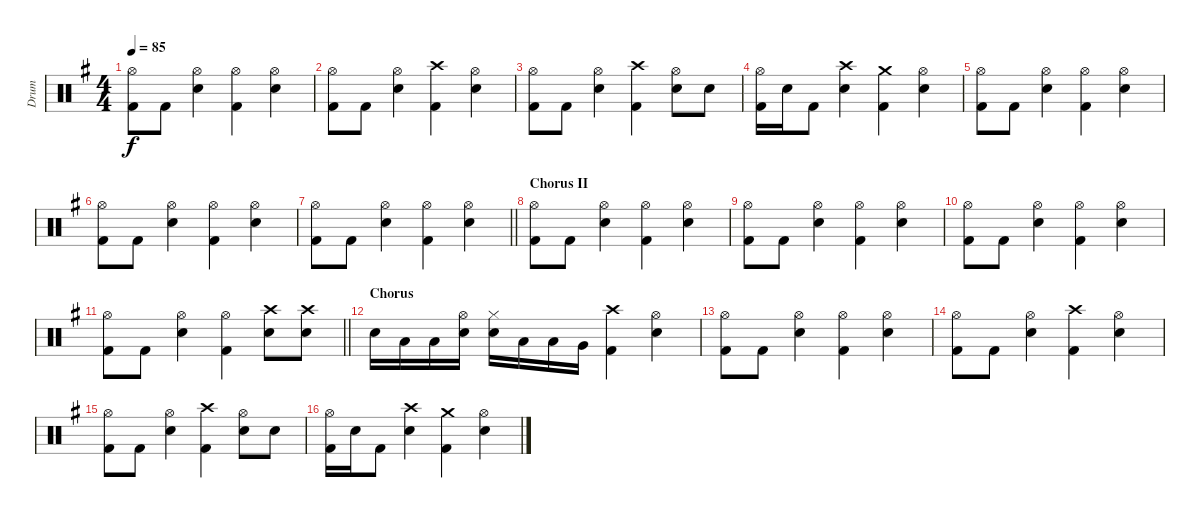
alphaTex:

\track ("Drum" "Drum") {instrument percussion}
\staff {score}
\articulation defaults
\ts (4 4)
\tempo 85
\clef neutral
\ks g
("Kick (hit) 2" "Hi-Hat (open)").8{dy f} "Kick (hit) 2".8 ("Electric Snare (hit)" "Hi-Hat (open)").4 ("Kick (hit) 2" "Hi-Hat (open)").4 ("Electric Snare (hit)" "Hi-Hat (open)").4 |
("Kick (hit) 2" "Hi-Hat (open)").8 "Kick (hit) 2".8 ("Electric Snare (hit)" "Hi-Hat (open)").4 ("Kick (hit) 2" "Crash high (hit)").4 ("Electric Snare (hit)" "Hi-Hat (open)").4 |
("Kick (hit) 2" "Hi-Hat (open)").8 "Kick (hit) 2".8 ("Electric Snare (hit)" "Hi-Hat (open)").4 ("Kick (hit) 2" "Crash high (hit)").4 ("Electric Snare (hit)" "Hi-Hat (open)").8 "Electric Snare (hit)".8 |
("Kick (hit) 2" "Hi-Hat (open)").16 "Electric Snare (hit)".16 "Kick (hit) 2".8 ("Electric Snare (hit)" "Crash high (hit)").4 ("Kick (hit) 2" "Crash medium (hit)").4 ("Electric Snare (hit)" "Hi-Hat (open)").4 |
("Kick (hit) 2" "Hi-Hat (open)").8 "Kick (hit) 2".8 ("Electric Snare (hit)" "Hi-Hat (open)").4 ("Kick (hit) 2" "Hi-Hat (open)").4 ("Electric Snare (hit)" "Hi-Hat (open)").4 |
("Kick (hit) 2" "Hi-Hat (open)").8 "Kick (hit) 2".8 ("Electric Snare (hit)" "Hi-Hat (open)").4 ("Kick (hit) 2" "Hi-Hat (open)").4 ("Electric Snare (hit)" "Hi-Hat (open)").4 |
\barLineRight lightlight
("Kick (hit) 2" "Hi-Hat (open)").8 "Kick (hit) 2".8 ("Electric Snare (hit)" "Hi-Hat (open)").4 ("Kick (hit) 2" "Hi-Hat (open)").4 ("Electric Snare (hit)" "Hi-Hat (open)").4 |
\section ("" "Chorus II")
("Kick (hit) 2" "Hi-Hat (open)").8 "Kick (hit) 2".8 ("Electric Snare (hit)" "Hi-Hat (open)").4 ("Kick (hit) 2" "Hi-Hat (open)").4 ("Electric Snare (hit)" "Hi-Hat (open)").4 |
("Kick (hit) 2" "Hi-Hat (open)").8 "Kick (hit) 2".8 ("Electric Snare (hit)" "Hi-Hat (open)").4 ("Kick (hit) 2" "Hi-Hat (open)").4 ("Electric Snare (hit)" "Hi-Hat (open)").4 |
("Kick (hit) 2" "Hi-Hat (open)").8 "Kick (hit) 2".8 ("Electric Snare (hit)" "Hi-Hat (open)").4 ("Kick (hit) 2" "Hi-Hat (open)").4 ("Electric Snare (hit)" "Hi-Hat (open)").4 |
\barLineRight lightlight
("Kick (hit) 2" "Hi-Hat (open)").8 "Kick (hit) 2".8 ("Electric Snare (hit)" "Hi-Hat (open)").4 ("Kick (hit) 2" "Hi-Hat (open)").4 ("Electric Snare (hit)" "Crash high (hit)").8 ("Electric Snare (hit)" "Crash high (hit)").8 |
\section ("" "Chorus")
"Electric Snare (hit)".16 "Low Tom (hit)".16 "Low Tom (hit)".16 ("Hi-Hat (open)" "Electric Snare (hit)").16 ("Electric Snare (hit)" "Hi-Hat (closed)").16 "Low Tom (hit)".16 "Low Tom (hit)".16 "Very Low Tom (hit)".16 ("Crash high (hit)" "Kick (hit) 2").4 ("Electric Snare (hit)" "Hi-Hat (open)").4 |
("Kick (hit) 2" "Hi-Hat (open)").8 "Kick (hit) 2".8 ("Electric Snare (hit)" "Hi-Hat (open)").4 ("Kick (hit) 2" "Hi-Hat (open)").4 ("Electric Snare (hit)" "Hi-Hat (open)").4 |
("Kick (hit) 2" "Hi-Hat (open)").8 "Kick (hit) 2".8 ("Electric Snare (hit)" "Hi-Hat (open)").4 ("Kick (hit) 2" "Crash high (hit)").4 ("Electric Snare (hit)" "Hi-Hat (open)").4 |
("Kick (hit) 2" "Hi-Hat (open)").8 "Kick (hit) 2".8 ("Electric Snare (hit)" "Hi-Hat (open)").4 ("Kick (hit) 2" "Crash high (hit)").4 ("Electric Snare (hit)" "Hi-Hat (open)").8 "Electric Snare (hit)".8 |
("Kick (hit) 2" "Hi-Hat (open)").16 "Electric Snare (hit)".16 "Kick (hit) 2".8 ("Electric Snare (hit)" "Crash high (hit)").4 ("Kick (hit) 2" "Crash medium (hit)").4 ("Electric Snare (hit)" "Hi-Hat (open)").4
